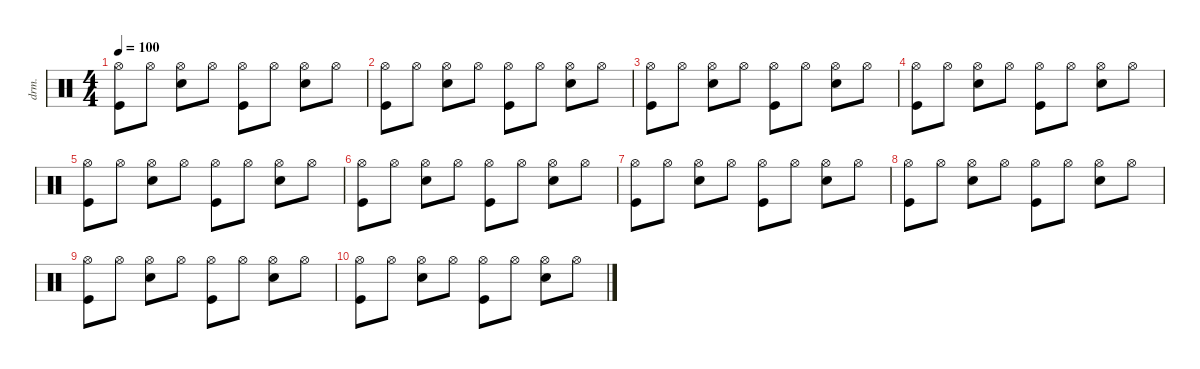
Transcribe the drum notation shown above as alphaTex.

\defaultSystemsLayout 4
\hideDynamics
\bracketExtendMode nobrackets
\otherSystemsTrackNameOrientation horizontal
\track ("Drumkit" "drm.") {instrument percussion}
\staff {score}
\articulation defaults
\ts (4 4)
\tempo 100
\clef neutral
\ks c
("Kick (hit)" "Hi-Hat (open)").8{dy mf beam Down} "Hi-Hat (open)".8{beam Down} ("Snare (hit) 2" "Hi-Hat (open)").8{beam Down} "Hi-Hat (open)".8{beam Down} ("Kick (hit)" "Hi-Hat (open)").8{beam Down} "Hi-Hat (open)".8{beam Down} ("Snare (hit) 2" "Hi-Hat (open)").8{beam Down} "Hi-Hat (open)".8{beam Down} |
("Kick (hit)" "Hi-Hat (open)").8{beam Down} "Hi-Hat (open)".8{beam Down} ("Snare (hit) 2" "Hi-Hat (open)").8{beam Down} "Hi-Hat (open)".8{beam Down} ("Kick (hit)" "Hi-Hat (open)").8{beam Down} "Hi-Hat (open)".8{beam Down} ("Snare (hit) 2" "Hi-Hat (open)").8{beam Down} "Hi-Hat (open)".8{beam Down} |
("Kick (hit)" "Hi-Hat (open)").8{beam Down} "Hi-Hat (open)".8{beam Down} ("Snare (hit) 2" "Hi-Hat (open)").8{beam Down} "Hi-Hat (open)".8{beam Down} ("Kick (hit)" "Hi-Hat (open)").8{beam Down} "Hi-Hat (open)".8{beam Down} ("Snare (hit) 2" "Hi-Hat (open)").8{beam Down} "Hi-Hat (open)".8{beam Down} |
("Kick (hit)" "Hi-Hat (open)").8{beam Down} "Hi-Hat (open)".8{beam Down} ("Snare (hit) 2" "Hi-Hat (open)").8{beam Down} "Hi-Hat (open)".8{beam Down} ("Kick (hit)" "Hi-Hat (open)").8{beam Down} "Hi-Hat (open)".8{beam Down} ("Snare (hit) 2" "Hi-Hat (open)").8{beam Down} "Hi-Hat (open)".8{beam Down} |
("Kick (hit)" "Hi-Hat (open)").8{beam Down} "Hi-Hat (open)".8{beam Down} ("Snare (hit) 2" "Hi-Hat (open)").8{beam Down} "Hi-Hat (open)".8{beam Down} ("Kick (hit)" "Hi-Hat (open)").8{beam Down} "Hi-Hat (open)".8{beam Down} ("Snare (hit) 2" "Hi-Hat (open)").8{beam Down} "Hi-Hat (open)".8{beam Down} |
("Kick (hit)" "Hi-Hat (open)").8{beam Down} "Hi-Hat (open)".8{beam Down} ("Snare (hit) 2" "Hi-Hat (open)").8{beam Down} "Hi-Hat (open)".8{beam Down} ("Kick (hit)" "Hi-Hat (open)").8{beam Down} "Hi-Hat (open)".8{beam Down} ("Snare (hit) 2" "Hi-Hat (open)").8{beam Down} "Hi-Hat (open)".8{beam Down} |
("Kick (hit)" "Hi-Hat (open)").8{beam Down} "Hi-Hat (open)".8{beam Down} ("Snare (hit) 2" "Hi-Hat (open)").8{beam Down} "Hi-Hat (open)".8{beam Down} ("Kick (hit)" "Hi-Hat (open)").8{beam Down} "Hi-Hat (open)".8{beam Down} ("Snare (hit) 2" "Hi-Hat (open)").8{beam Down} "Hi-Hat (open)".8{beam Down} |
("Kick (hit)" "Hi-Hat (open)").8{beam Down} "Hi-Hat (open)".8{beam Down} ("Snare (hit) 2" "Hi-Hat (open)").8{beam Down} "Hi-Hat (open)".8{beam Down} ("Kick (hit)" "Hi-Hat (open)").8{beam Down} "Hi-Hat (open)".8{beam Down} ("Snare (hit) 2" "Hi-Hat (open)").8{beam Down} "Hi-Hat (open)".8{beam Down} |
("Kick (hit)" "Hi-Hat (open)").8{beam Down} "Hi-Hat (open)".8{beam Down} ("Snare (hit) 2" "Hi-Hat (open)").8{beam Down} "Hi-Hat (open)".8{beam Down} ("Kick (hit)" "Hi-Hat (open)").8{beam Down} "Hi-Hat (open)".8{beam Down} ("Snare (hit) 2" "Hi-Hat (open)").8{beam Down} "Hi-Hat (open)".8{beam Down} |
("Kick (hit)" "Hi-Hat (open)").8{beam Down} "Hi-Hat (open)".8{beam Down} ("Snare (hit) 2" "Hi-Hat (open)").8{beam Down} "Hi-Hat (open)".8{beam Down} ("Kick (hit)" "Hi-Hat (open)").8{beam Down} "Hi-Hat (open)".8{beam Down} ("Snare (hit) 2" "Hi-Hat (open)").8{beam Down} "Hi-Hat (open)".8{beam Down}
